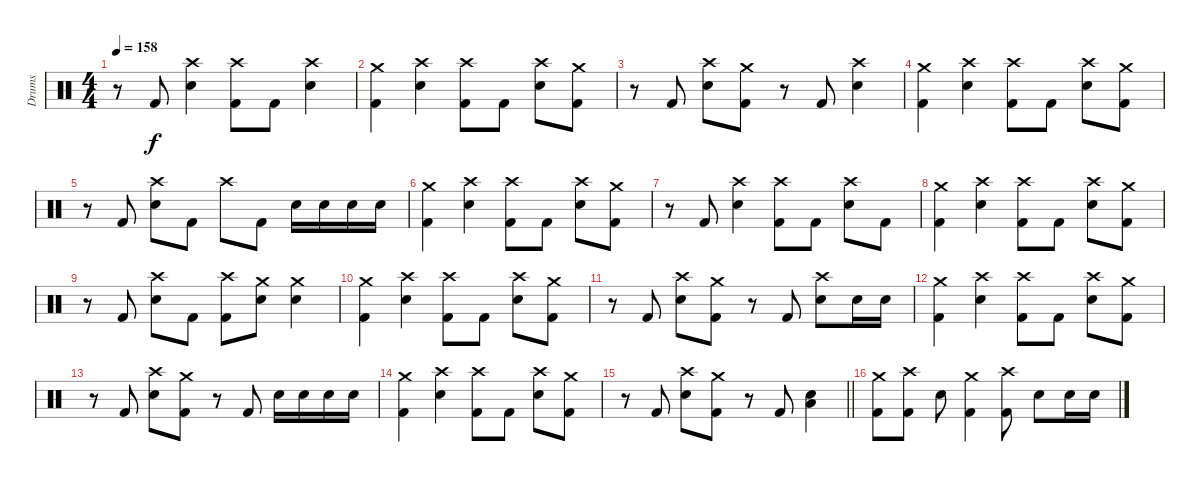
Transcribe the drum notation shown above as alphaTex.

\track ("Drums" "Drums") {instrument percussion}
\staff {score}
\articulation defaults
\ts (4 4)
\tempo 158
\clef neutral
\ks c
r.8{dy f} "Kick (hit) 2".8 ("Crash high (hit)" "Electric Snare (hit)").4 ("Crash high (hit)" "Kick (hit) 2").8 "Kick (hit) 2".8 ("Crash high (hit)" "Electric Snare (hit)").4 |
("Crash medium (hit)" "Kick (hit) 2").4 ("Crash high (hit)" "Electric Snare (hit)").4 ("Crash high (hit)" "Kick (hit) 2").8 "Kick (hit) 2".8 ("Crash high (hit)" "Electric Snare (hit)").8 ("Crash medium (hit)" "Kick (hit) 2").8 |
r.8 "Kick (hit) 2".8 ("Crash high (hit)" "Electric Snare (hit)").8 ("Crash medium (hit)" "Kick (hit) 2").8 r.8 "Kick (hit) 2".8 ("Crash high (hit)" "Electric Snare (hit)").4 |
("Crash medium (hit)" "Kick (hit) 2").4 ("Crash high (hit)" "Electric Snare (hit)").4 ("Crash high (hit)" "Kick (hit) 2").8 "Kick (hit) 2".8 ("Crash high (hit)" "Electric Snare (hit)").8 ("Crash medium (hit)" "Kick (hit) 2").8 |
r.8 "Kick (hit) 2".8 ("Crash high (hit)" "Electric Snare (hit)").8 "Kick (hit) 2".8 "Crash high (hit)".8 "Kick (hit) 2".8 "Electric Snare (hit)".16 "Electric Snare (hit)".16 "Electric Snare (hit)".16 "Electric Snare (hit)".16 |
("Crash medium (hit)" "Kick (hit) 2").4 ("Crash high (hit)" "Electric Snare (hit)").4 ("Crash high (hit)" "Kick (hit) 2").8 "Kick (hit) 2".8 ("Crash high (hit)" "Electric Snare (hit)").8 ("Crash medium (hit)" "Kick (hit) 2").8 |
r.8 "Kick (hit) 2".8 ("Crash high (hit)" "Electric Snare (hit)").4 ("Crash high (hit)" "Kick (hit) 2").8 "Kick (hit) 2".8 ("Crash high (hit)" "Electric Snare (hit)").8 "Kick (hit) 2".8 |
("Crash medium (hit)" "Kick (hit) 2").4 ("Crash high (hit)" "Electric Snare (hit)").4 ("Crash high (hit)" "Kick (hit) 2").8 "Kick (hit) 2".8 ("Crash high (hit)" "Electric Snare (hit)").8 ("Crash medium (hit)" "Kick (hit) 2").8 |
r.8 "Kick (hit) 2".8 ("Crash high (hit)" "Electric Snare (hit)").8 "Kick (hit) 2".8 ("Crash high (hit)" "Kick (hit) 2").8 ("Crash medium (hit)" "Electric Snare (hit)").8 ("Crash medium (hit)" "Electric Snare (hit)").4 |
("Crash medium (hit)" "Kick (hit) 2").4 ("Crash high (hit)" "Electric Snare (hit)").4 ("Crash high (hit)" "Kick (hit) 2").8 "Kick (hit) 2".8 ("Crash high (hit)" "Electric Snare (hit)").8 ("Crash medium (hit)" "Kick (hit) 2").8 |
r.8 "Kick (hit) 2".8 ("Crash high (hit)" "Electric Snare (hit)").8 ("Crash medium (hit)" "Kick (hit) 2").8 r.8 "Kick (hit) 2".8 ("Crash high (hit)" "Electric Snare (hit)").8 "Electric Snare (hit)".16 "Electric Snare (hit)".16 |
("Crash medium (hit)" "Kick (hit) 2").4 ("Crash high (hit)" "Electric Snare (hit)").4 ("Crash high (hit)" "Kick (hit) 2").8 "Kick (hit) 2".8 ("Crash high (hit)" "Electric Snare (hit)").8 ("Crash medium (hit)" "Kick (hit) 2").8 |
r.8 "Kick (hit) 2".8 ("Crash high (hit)" "Electric Snare (hit)").8 ("Crash medium (hit)" "Kick (hit) 2").8 r.8 "Kick (hit) 2".8 "Electric Snare (hit)".16 "Electric Snare (hit)".16 "Electric Snare (hit)".16 "Electric Snare (hit)".16 |
("Crash medium (hit)" "Kick (hit) 2").4 ("Crash high (hit)" "Electric Snare (hit)").4 ("Crash high (hit)" "Kick (hit) 2").8 "Kick (hit) 2".8 ("Crash high (hit)" "Electric Snare (hit)").8 ("Crash medium (hit)" "Kick (hit) 2").8 |
\barLineRight lightlight
r.8 "Kick (hit) 2".8 ("Crash high (hit)" "Electric Snare (hit)").8 ("Crash medium (hit)" "Kick (hit) 2").8 r.8 "Kick (hit) 2".8 ("Electric Snare (hit)" "Low Floor Tom (hit)").4 |
("Crash medium (hit)" "Kick (hit) 2").8 ("Crash high (hit)" "Kick (hit) 2").8 "Electric Snare (hit)".8 ("Crash medium (hit)" "Kick (hit) 2").4 ("Crash high (hit)" "Kick (hit) 2").8 "Electric Snare (hit)".8 "Electric Snare (hit)".16 "Electric Snare (hit)".16
